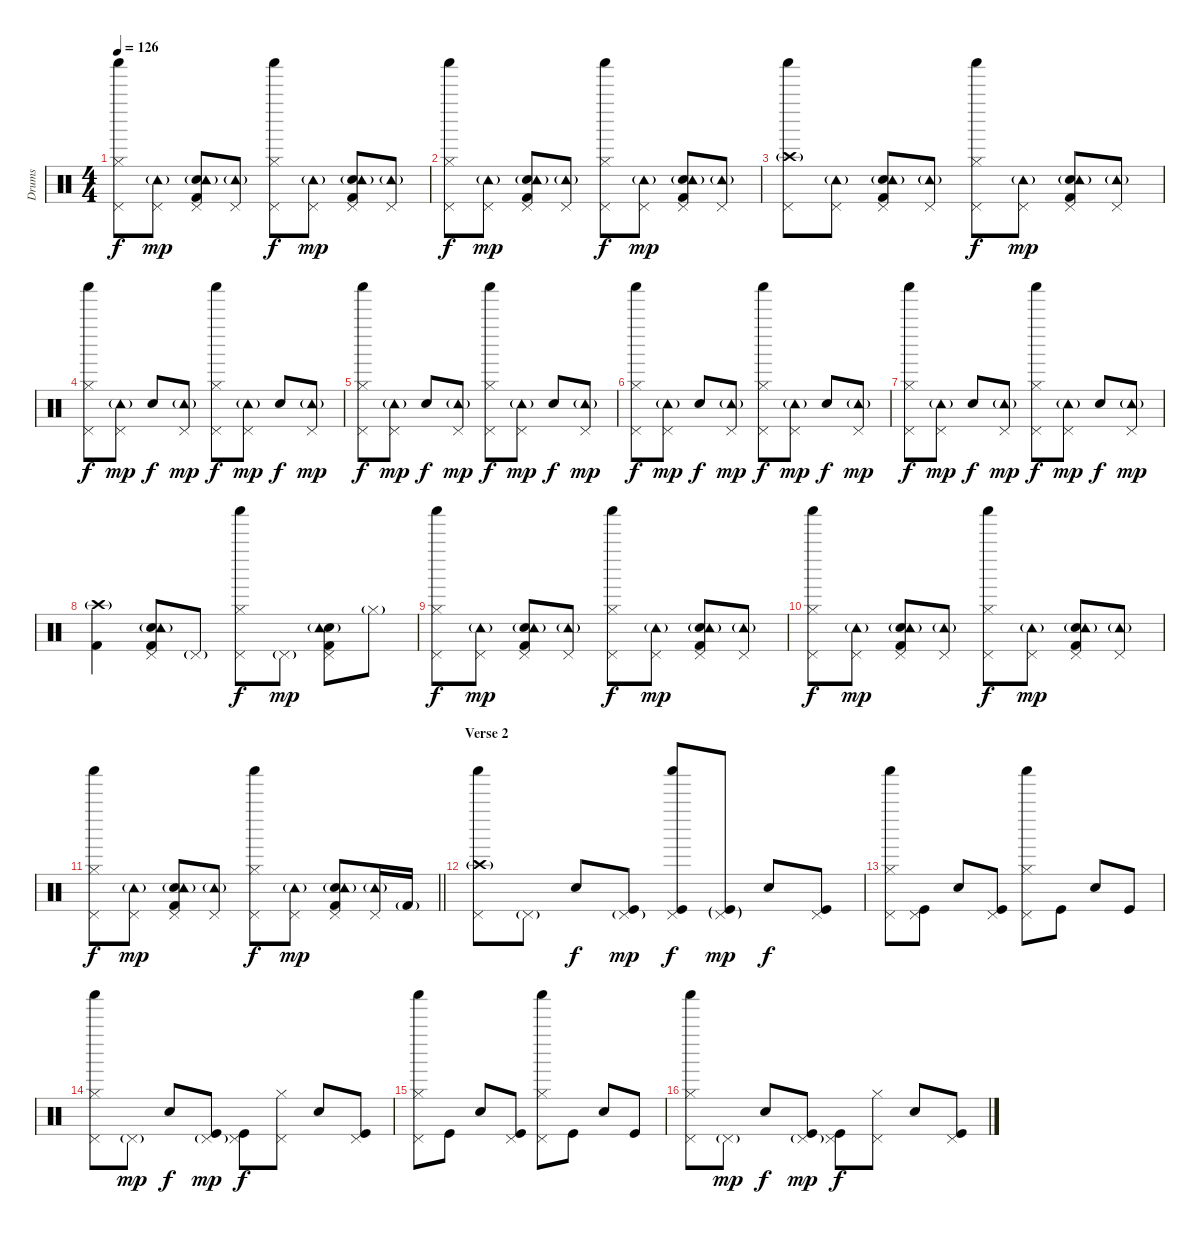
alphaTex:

\track ("Drums" "Drums") {instrument percussion}
\staff {score}
\articulation defaults
\ts (4 4)
\tempo 126
\clef neutral
\ks c
("Hi-Hat (closed)" "Pedal Hi-Hat (hit)" "Shaker (hit)").8{dy f} ("Pedal Hi-Hat (hit)" "Tambourine (hit)"{g}).8{dy mp} ("Pedal Hi-Hat (hit)" "Electric Snare (hit)" "Kick (hit) 2" "Tambourine (hit)"{g}).8 ("Pedal Hi-Hat (hit)" "Tambourine (hit)"{g}).8 ("Hi-Hat (closed)" "Pedal Hi-Hat (hit)" "Shaker (hit)").8{dy f} ("Pedal Hi-Hat (hit)" "Tambourine (hit)"{g}).8{dy mp} ("Pedal Hi-Hat (hit)" "Electric Snare (hit)" "Kick (hit) 2" "Tambourine (hit)"{g}).8 ("Pedal Hi-Hat (hit)" "Tambourine (hit)"{g}).8 |
("Hi-Hat (closed)" "Pedal Hi-Hat (hit)" "Shaker (hit)").8{dy f} ("Pedal Hi-Hat (hit)" "Tambourine (hit)"{g}).8{dy mp} ("Pedal Hi-Hat (hit)" "Electric Snare (hit)" "Kick (hit) 2" "Tambourine (hit)"{g}).8 ("Pedal Hi-Hat (hit)" "Tambourine (hit)"{g}).8 ("Hi-Hat (closed)" "Pedal Hi-Hat (hit)" "Shaker (hit)").8{dy f} ("Pedal Hi-Hat (hit)" "Tambourine (hit)"{g}).8{dy mp} ("Pedal Hi-Hat (hit)" "Electric Snare (hit)" "Kick (hit) 2" "Tambourine (hit)"{g}).8 ("Pedal Hi-Hat (hit)" "Tambourine (hit)"{g}).8 |
("Crash high (hit)"{g} "Pedal Hi-Hat (hit)" "Shaker (hit)").8 ("Pedal Hi-Hat (hit)" "Tambourine (hit)"{g}).8 ("Pedal Hi-Hat (hit)" "Electric Snare (hit)" "Kick (hit) 2" "Tambourine (hit)"{g}).8 ("Pedal Hi-Hat (hit)" "Tambourine (hit)"{g}).8 ("Hi-Hat (closed)" "Pedal Hi-Hat (hit)" "Shaker (hit)").8{dy f} ("Pedal Hi-Hat (hit)" "Tambourine (hit)"{g}).8{dy mp} ("Pedal Hi-Hat (hit)" "Electric Snare (hit)" "Kick (hit) 2" "Tambourine (hit)"{g}).8 ("Pedal Hi-Hat (hit)" "Tambourine (hit)"{g}).8 |
("Hi-Hat (closed)" "Pedal Hi-Hat (hit)" "Shaker (hit)").8{dy f} ("Pedal Hi-Hat (hit)" "Tambourine (hit)"{g}).8{dy mp} "Electric Snare (hit)".8{dy f} ("Pedal Hi-Hat (hit)" "Tambourine (hit)"{g}).8{dy mp} ("Hi-Hat (closed)" "Pedal Hi-Hat (hit)" "Shaker (hit)").8{dy f} ("Pedal Hi-Hat (hit)" "Tambourine (hit)"{g}).8{dy mp} "Electric Snare (hit)".8{dy f} ("Pedal Hi-Hat (hit)" "Tambourine (hit)"{g}).8{dy mp} |
("Hi-Hat (closed)" "Pedal Hi-Hat (hit)" "Shaker (hit)").8{dy f} ("Pedal Hi-Hat (hit)" "Tambourine (hit)"{g}).8{dy mp} "Electric Snare (hit)".8{dy f} ("Pedal Hi-Hat (hit)" "Tambourine (hit)"{g}).8{dy mp} ("Hi-Hat (closed)" "Pedal Hi-Hat (hit)" "Shaker (hit)").8{dy f} ("Pedal Hi-Hat (hit)" "Tambourine (hit)"{g}).8{dy mp} "Electric Snare (hit)".8{dy f} ("Pedal Hi-Hat (hit)" "Tambourine (hit)"{g}).8{dy mp} |
("Hi-Hat (closed)" "Pedal Hi-Hat (hit)" "Shaker (hit)").8{dy f} ("Pedal Hi-Hat (hit)" "Tambourine (hit)"{g}).8{dy mp} "Electric Snare (hit)".8{dy f} ("Pedal Hi-Hat (hit)" "Tambourine (hit)"{g}).8{dy mp} ("Hi-Hat (closed)" "Pedal Hi-Hat (hit)" "Shaker (hit)").8{dy f} ("Pedal Hi-Hat (hit)" "Tambourine (hit)"{g}).8{dy mp} "Electric Snare (hit)".8{dy f} ("Pedal Hi-Hat (hit)" "Tambourine (hit)"{g}).8{dy mp} |
("Hi-Hat (closed)" "Pedal Hi-Hat (hit)" "Shaker (hit)").8{dy f} ("Pedal Hi-Hat (hit)" "Tambourine (hit)"{g}).8{dy mp} "Electric Snare (hit)".8{dy f} ("Pedal Hi-Hat (hit)" "Tambourine (hit)"{g}).8{dy mp} ("Hi-Hat (closed)" "Pedal Hi-Hat (hit)" "Shaker (hit)").8{dy f} ("Pedal Hi-Hat (hit)" "Tambourine (hit)"{g}).8{dy mp} "Electric Snare (hit)".8{dy f} ("Pedal Hi-Hat (hit)" "Tambourine (hit)"{g}).8{dy mp} |
("Crash high (hit)"{g} "Kick (hit) 2").4 ("Pedal Hi-Hat (hit)" "Electric Snare (hit)" "Kick (hit) 2" "Tambourine (hit)"{g}).8 "Pedal Hi-Hat (hit)"{g}.8 ("Hi-Hat (closed)" "Pedal Hi-Hat (hit)" "Shaker (hit)").8{dy f} "Pedal Hi-Hat (hit)"{g}.8{dy mp} ("Pedal Hi-Hat (hit)" "Electric Snare (hit)" "Kick (hit) 2" "Tambourine (hit)"{g}).8 "Hi-Hat (closed)"{g}.8 |
("Hi-Hat (closed)" "Pedal Hi-Hat (hit)" "Shaker (hit)").8{dy f} ("Pedal Hi-Hat (hit)" "Tambourine (hit)"{g}).8{dy mp} ("Pedal Hi-Hat (hit)" "Electric Snare (hit)" "Kick (hit) 2" "Tambourine (hit)"{g}).8 ("Pedal Hi-Hat (hit)" "Tambourine (hit)"{g}).8 ("Hi-Hat (closed)" "Pedal Hi-Hat (hit)" "Shaker (hit)").8{dy f} ("Pedal Hi-Hat (hit)" "Tambourine (hit)"{g}).8{dy mp} ("Pedal Hi-Hat (hit)" "Electric Snare (hit)" "Kick (hit) 2" "Tambourine (hit)"{g}).8 ("Pedal Hi-Hat (hit)" "Tambourine (hit)"{g}).8 |
("Hi-Hat (closed)" "Pedal Hi-Hat (hit)" "Shaker (hit)").8{dy f} ("Pedal Hi-Hat (hit)" "Tambourine (hit)"{g}).8{dy mp} ("Pedal Hi-Hat (hit)" "Electric Snare (hit)" "Kick (hit) 2" "Tambourine (hit)"{g}).8 ("Pedal Hi-Hat (hit)" "Tambourine (hit)"{g}).8 ("Hi-Hat (closed)" "Pedal Hi-Hat (hit)" "Shaker (hit)").8{dy f} ("Pedal Hi-Hat (hit)" "Tambourine (hit)"{g}).8{dy mp} ("Pedal Hi-Hat (hit)" "Electric Snare (hit)" "Kick (hit) 2" "Tambourine (hit)"{g}).8 ("Pedal Hi-Hat (hit)" "Tambourine (hit)"{g}).8 |
\barLineRight lightlight
("Hi-Hat (closed)" "Pedal Hi-Hat (hit)" "Shaker (hit)").8{dy f} ("Pedal Hi-Hat (hit)" "Tambourine (hit)"{g}).8{dy mp} ("Pedal Hi-Hat (hit)" "Electric Snare (hit)" "Kick (hit) 2" "Tambourine (hit)"{g}).8 ("Pedal Hi-Hat (hit)" "Tambourine (hit)"{g}).8 ("Hi-Hat (closed)" "Pedal Hi-Hat (hit)" "Shaker (hit)").8{dy f} ("Pedal Hi-Hat (hit)" "Tambourine (hit)"{g}).8{dy mp} ("Pedal Hi-Hat (hit)" "Electric Snare (hit)" "Kick (hit) 2" "Tambourine (hit)"{g}).8 ("Pedal Hi-Hat (hit)" "Tambourine (hit)"{g}).16 "Kick (hit) 2"{g}.16 |
\section ("" "Verse 2")
("Crash high (hit)"{g} "Pedal Hi-Hat (hit)" "Shaker (hit)").8 "Pedal Hi-Hat (hit)"{g}.8 "Electric Snare (hit)".8{dy f} ("Pedal Hi-Hat (hit)"{g} "Kick (hit)").8{dy mp} ("Pedal Hi-Hat (hit)" "Kick (hit)" "Shaker (hit)").8{dy f} ("Pedal Hi-Hat (hit)"{g} "Kick (hit)"{g}).8{dy mp} "Electric Snare (hit)".8{dy f} ("Pedal Hi-Hat (hit)" "Kick (hit)").8 |
("Hi-Hat (closed)" "Pedal Hi-Hat (hit)" "Shaker (hit)").8 ("Pedal Hi-Hat (hit)" "Kick (hit)").8 "Electric Snare (hit)".8 ("Pedal Hi-Hat (hit)" "Kick (hit)").8 ("Hi-Hat (closed)" "Pedal Hi-Hat (hit)" "Shaker (hit)").8 "Kick (hit)".8 "Electric Snare (hit)".8 "Kick (hit)".8 |
("Hi-Hat (closed)" "Pedal Hi-Hat (hit)" "Shaker (hit)").8 "Pedal Hi-Hat (hit)"{g}.8{dy mp} "Electric Snare (hit)".8{dy f} ("Pedal Hi-Hat (hit)"{g} "Kick (hit)").8{dy mp} ("Pedal Hi-Hat (hit)" "Kick (hit)").8{dy f} ("Hi-Hat (closed)" "Pedal Hi-Hat (hit)").8 "Electric Snare (hit)".8 ("Pedal Hi-Hat (hit)" "Kick (hit)").8 |
("Hi-Hat (closed)" "Pedal Hi-Hat (hit)" "Shaker (hit)").8 "Kick (hit)".8 "Electric Snare (hit)".8 ("Pedal Hi-Hat (hit)" "Kick (hit)").8 ("Hi-Hat (closed)" "Pedal Hi-Hat (hit)" "Shaker (hit)").8 "Kick (hit)".8 "Electric Snare (hit)".8 "Kick (hit)".8 |
("Hi-Hat (closed)" "Pedal Hi-Hat (hit)" "Shaker (hit)").8 "Pedal Hi-Hat (hit)"{g}.8{dy mp} "Electric Snare (hit)".8{dy f} ("Pedal Hi-Hat (hit)"{g} "Kick (hit)").8{dy mp} ("Pedal Hi-Hat (hit)" "Kick (hit)").8{dy f} ("Hi-Hat (closed)" "Pedal Hi-Hat (hit)").8 "Electric Snare (hit)".8 ("Pedal Hi-Hat (hit)" "Kick (hit)").8
